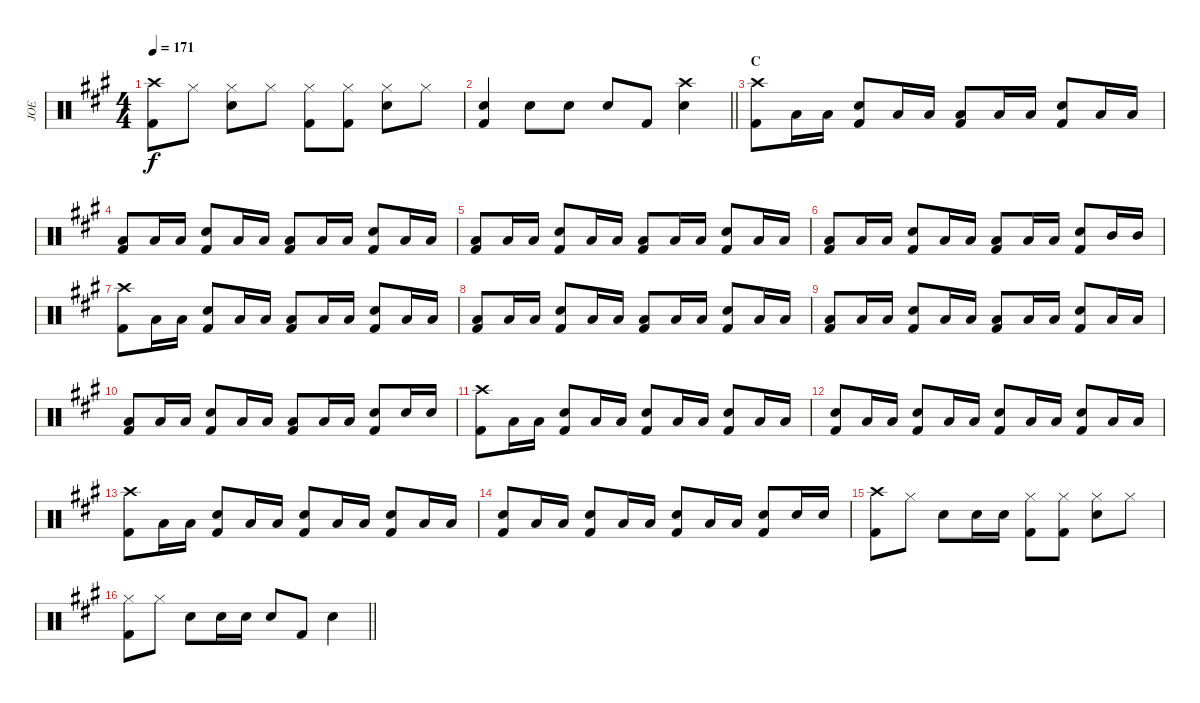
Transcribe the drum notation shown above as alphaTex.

\track ("JOE" "JOE") {instrument percussion}
\staff {score}
\articulation defaults
\ts (4 4)
\tempo 171
\clef neutral
\ks a
("Crash high (hit)" "Kick (hit) 2").8{dy f} "Hi-Hat (closed)".8 ("Hi-Hat (closed)" "Snare (hit) 2").8 "Hi-Hat (closed)".8 ("Hi-Hat (closed)" "Kick (hit) 2").8 ("Hi-Hat (closed)" "Kick (hit) 2").8 ("Hi-Hat (closed)" "Snare (hit) 2").8 "Hi-Hat (closed)".8 |
\barLineRight lightlight
("Snare (hit) 2" "Kick (hit) 2").4 "Snare (hit) 2".8 "Snare (hit) 2".8 "Snare (hit) 2".8 "Kick (hit) 2".8 ("Crash high (hit)" "Snare (hit) 2").4 |
\section ("" "C")
("Crash high (hit)" "Kick (hit) 2").8 "Low Floor Tom (hit)".16 "Low Floor Tom (hit)".16 ("Snare (hit) 2" "Kick (hit) 2").8 "Low Floor Tom (hit)".16 "Low Floor Tom (hit)".16 ("Low Floor Tom (hit)" "Kick (hit) 2").8 "Low Floor Tom (hit)".16 "Low Floor Tom (hit)".16 ("Snare (hit) 2" "Kick (hit) 2").8 "Low Floor Tom (hit)".16 "Low Floor Tom (hit)".16 |
("Low Floor Tom (hit)" "Kick (hit) 2").8 "Low Floor Tom (hit)".16 "Low Floor Tom (hit)".16 ("Snare (hit) 2" "Kick (hit) 2").8 "Low Floor Tom (hit)".16 "Low Floor Tom (hit)".16 ("Low Floor Tom (hit)" "Kick (hit) 2").8 "Low Floor Tom (hit)".16 "Low Floor Tom (hit)".16 ("Snare (hit) 2" "Kick (hit) 2").8 "Low Floor Tom (hit)".16 "Low Floor Tom (hit)".16 |
("Low Floor Tom (hit)" "Kick (hit) 2").8 "Low Floor Tom (hit)".16 "Low Floor Tom (hit)".16 ("Snare (hit) 2" "Kick (hit) 2").8 "Low Floor Tom (hit)".16 "Low Floor Tom (hit)".16 ("Low Floor Tom (hit)" "Kick (hit) 2").8 "Low Floor Tom (hit)".16 "Low Floor Tom (hit)".16 ("Snare (hit) 2" "Kick (hit) 2").8 "Low Floor Tom (hit)".16 "Low Floor Tom (hit)".16 |
("Low Floor Tom (hit)" "Kick (hit) 2").8 "Low Floor Tom (hit)".16 "Low Floor Tom (hit)".16 ("Snare (hit) 2" "Kick (hit) 2").8 "Low Floor Tom (hit)".16 "Low Floor Tom (hit)".16 ("Low Floor Tom (hit)" "Kick (hit) 2").8 "Low Floor Tom (hit)".16 "Low Floor Tom (hit)".16 ("Snare (hit) 2" "Kick (hit) 2").8 "Mid Tom (hit)".16 "Mid Tom (hit)".16 |
("Crash high (hit)" "Kick (hit) 2").8 "Low Floor Tom (hit)".16 "Low Floor Tom (hit)".16 ("Snare (hit) 2" "Kick (hit) 2").8 "Low Floor Tom (hit)".16 "Low Floor Tom (hit)".16 ("Low Floor Tom (hit)" "Kick (hit) 2").8 "Low Floor Tom (hit)".16 "Low Floor Tom (hit)".16 ("Snare (hit) 2" "Kick (hit) 2").8 "Low Floor Tom (hit)".16 "Low Floor Tom (hit)".16 |
("Low Floor Tom (hit)" "Kick (hit) 2").8 "Low Floor Tom (hit)".16 "Low Floor Tom (hit)".16 ("Snare (hit) 2" "Kick (hit) 2").8 "Low Floor Tom (hit)".16 "Low Floor Tom (hit)".16 ("Low Floor Tom (hit)" "Kick (hit) 2").8 "Low Floor Tom (hit)".16 "Low Floor Tom (hit)".16 ("Snare (hit) 2" "Kick (hit) 2").8 "Low Floor Tom (hit)".16 "Low Floor Tom (hit)".16 |
("Low Floor Tom (hit)" "Kick (hit) 2").8 "Low Floor Tom (hit)".16 "Low Floor Tom (hit)".16 ("Snare (hit) 2" "Kick (hit) 2").8 "Low Floor Tom (hit)".16 "Low Floor Tom (hit)".16 ("Low Floor Tom (hit)" "Kick (hit) 2").8 "Low Floor Tom (hit)".16 "Low Floor Tom (hit)".16 ("Snare (hit) 2" "Kick (hit) 2").8 "Low Floor Tom (hit)".16 "Low Floor Tom (hit)".16 |
("Low Floor Tom (hit)" "Kick (hit) 2").8 "Low Floor Tom (hit)".16 "Low Floor Tom (hit)".16 ("Snare (hit) 2" "Kick (hit) 2").8 "Low Floor Tom (hit)".16 "Low Floor Tom (hit)".16 ("Low Floor Tom (hit)" "Kick (hit) 2").8 "Low Floor Tom (hit)".16 "Low Floor Tom (hit)".16 ("Snare (hit) 2" "Kick (hit) 2").8 "Snare (hit) 2".16 "Snare (hit) 2".16 |
("Crash high (hit)" "Kick (hit) 2").8 "Low Floor Tom (hit)".16 "Low Floor Tom (hit)".16 ("Snare (hit) 2" "Kick (hit) 2").8 "Low Floor Tom (hit)".16 "Low Floor Tom (hit)".16 ("Snare (hit) 2" "Kick (hit) 2").8 "Low Floor Tom (hit)".16 "Low Floor Tom (hit)".16 ("Snare (hit) 2" "Kick (hit) 2").8 "Low Floor Tom (hit)".16 "Low Floor Tom (hit)".16 |
("Snare (hit) 2" "Kick (hit) 2").8 "Low Floor Tom (hit)".16 "Low Floor Tom (hit)".16 ("Snare (hit) 2" "Kick (hit) 2").8 "Low Floor Tom (hit)".16 "Low Floor Tom (hit)".16 ("Snare (hit) 2" "Kick (hit) 2").8 "Low Floor Tom (hit)".16 "Low Floor Tom (hit)".16 ("Snare (hit) 2" "Kick (hit) 2").8 "Low Floor Tom (hit)".16 "Low Floor Tom (hit)".16 |
("Crash high (hit)" "Kick (hit) 2").8 "Low Floor Tom (hit)".16 "Low Floor Tom (hit)".16 ("Snare (hit) 2" "Kick (hit) 2").8 "Low Floor Tom (hit)".16 "Low Floor Tom (hit)".16 ("Snare (hit) 2" "Kick (hit) 2").8 "Low Floor Tom (hit)".16 "Low Floor Tom (hit)".16 ("Snare (hit) 2" "Kick (hit) 2").8 "Low Floor Tom (hit)".16 "Low Floor Tom (hit)".16 |
("Snare (hit) 2" "Kick (hit) 2").8 "Low Floor Tom (hit)".16 "Low Floor Tom (hit)".16 ("Snare (hit) 2" "Kick (hit) 2").8 "Low Floor Tom (hit)".16 "Low Floor Tom (hit)".16 ("Snare (hit) 2" "Kick (hit) 2").8 "Low Floor Tom (hit)".16 "Low Floor Tom (hit)".16 ("Snare (hit) 2" "Kick (hit) 2").8 "Snare (hit) 2".16 "Snare (hit) 2".16 |
("Crash high (hit)" "Kick (hit) 2").8 "Hi-Hat (closed)".8 "Snare (hit) 2".8 "Snare (hit) 2".16 "Snare (hit) 2".16 ("Hi-Hat (closed)" "Kick (hit) 2").8 ("Hi-Hat (closed)" "Kick (hit) 2").8 ("Hi-Hat (closed)" "Snare (hit) 2").8 "Hi-Hat (closed)".8 |
\barLineRight lightlight
("Hi-Hat (closed)" "Kick (hit) 2").8 "Hi-Hat (closed)".8 "Snare (hit) 2".8 "Snare (hit) 2".16 "Snare (hit) 2".16 "Snare (hit) 2".8 "Kick (hit) 2".8 "Snare (hit) 2".4
